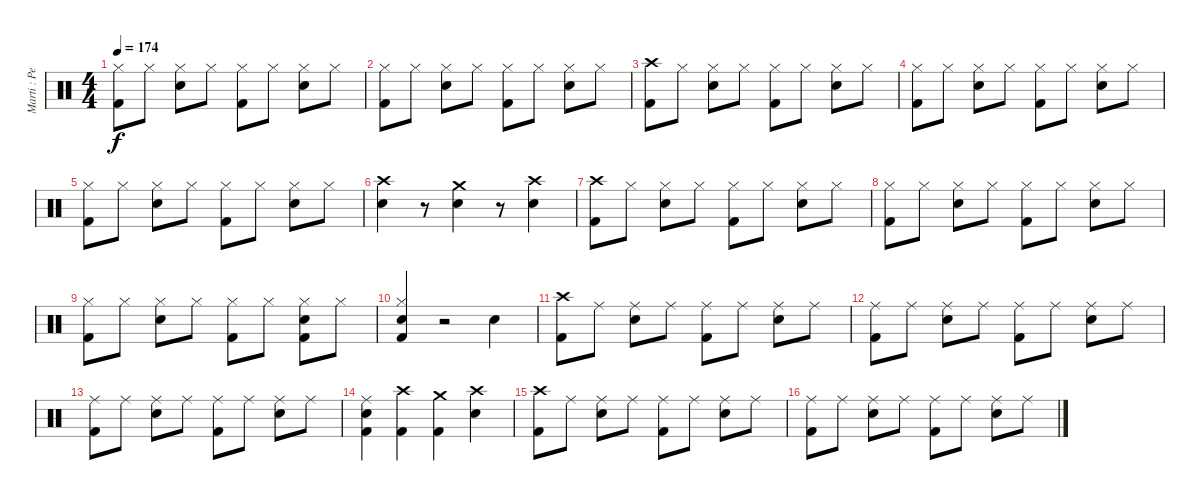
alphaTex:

\track ("Marti : Percussion" "Marti : Pe") {instrument percussion}
\staff {score}
\articulation defaults
\ts (4 4)
\tempo 174
\clef neutral
\ks c
("Kick (hit) 2" "Hi-Hat (closed)").8{dy f} "Hi-Hat (closed)".8 ("Electric Snare (hit)" "Hi-Hat (closed)").8 "Hi-Hat (closed)".8 ("Kick (hit) 2" "Hi-Hat (closed)").8 "Hi-Hat (closed)".8 ("Electric Snare (hit)" "Hi-Hat (closed)").8 "Hi-Hat (closed)".8 |
("Kick (hit) 2" "Hi-Hat (closed)").8 "Hi-Hat (closed)".8 ("Electric Snare (hit)" "Hi-Hat (closed)").8 "Hi-Hat (closed)".8 ("Kick (hit) 2" "Hi-Hat (closed)").8 "Hi-Hat (closed)".8 ("Electric Snare (hit)" "Hi-Hat (closed)").8 "Hi-Hat (closed)".8 |
("Kick (hit) 2" "Crash high (hit)").8 "Hi-Hat (closed)".8 ("Electric Snare (hit)" "Hi-Hat (closed)").8 "Hi-Hat (closed)".8 ("Kick (hit) 2" "Hi-Hat (closed)").8 "Hi-Hat (closed)".8 ("Electric Snare (hit)" "Hi-Hat (closed)").8 "Hi-Hat (closed)".8 |
("Kick (hit) 2" "Hi-Hat (closed)").8 "Hi-Hat (closed)".8 ("Electric Snare (hit)" "Hi-Hat (closed)").8 "Hi-Hat (closed)".8 ("Kick (hit) 2" "Hi-Hat (closed)").8 "Hi-Hat (closed)".8 ("Electric Snare (hit)" "Hi-Hat (closed)").8 "Hi-Hat (closed)".8 |
("Kick (hit) 2" "Hi-Hat (closed)").8 "Hi-Hat (closed)".8 ("Electric Snare (hit)" "Hi-Hat (closed)").8 "Hi-Hat (closed)".8 ("Kick (hit) 2" "Hi-Hat (closed)").8 "Hi-Hat (closed)".8 ("Electric Snare (hit)" "Hi-Hat (closed)").8 "Hi-Hat (closed)".8 |
("Electric Snare (hit)" "Crash high (hit)").4 r.8 ("Electric Snare (hit)" "Crash medium (hit)").4 r.8 ("Electric Snare (hit)" "Crash high (hit)").4 |
("Kick (hit) 2" "Crash high (hit)").8 "Hi-Hat (closed)".8 ("Electric Snare (hit)" "Hi-Hat (closed)").8 "Hi-Hat (closed)".8 ("Kick (hit) 2" "Hi-Hat (closed)").8 "Hi-Hat (closed)".8 ("Electric Snare (hit)" "Hi-Hat (closed)").8 "Hi-Hat (closed)".8 |
("Kick (hit) 2" "Hi-Hat (closed)").8 "Hi-Hat (closed)".8 ("Electric Snare (hit)" "Hi-Hat (closed)").8 "Hi-Hat (closed)".8 ("Kick (hit) 2" "Hi-Hat (closed)").8 "Hi-Hat (closed)".8 ("Electric Snare (hit)" "Hi-Hat (closed)").8 "Hi-Hat (closed)".8 |
("Kick (hit) 2" "Hi-Hat (closed)").8 "Hi-Hat (closed)".8 ("Electric Snare (hit)" "Hi-Hat (closed)").8 "Hi-Hat (closed)".8 ("Kick (hit) 2" "Hi-Hat (closed)").8 "Hi-Hat (closed)".8 ("Kick (hit) 2" "Electric Snare (hit)" "Hi-Hat (closed)").8 "Hi-Hat (closed)".8 |
("Kick (hit) 2" "Electric Snare (hit)" "Hi-Hat (closed)").4 r.2 "Electric Snare (hit)".4 |
("Kick (hit) 2" "Crash high (hit)").8 "Ride (middle)".8 ("Electric Snare (hit)" "Ride (middle)").8 "Ride (middle)".8 ("Kick (hit) 2" "Ride (middle)").8 "Ride (middle)".8 ("Electric Snare (hit)" "Ride (middle)").8 "Ride (middle)".8 |
("Kick (hit) 2" "Ride (middle)").8 "Ride (middle)".8 ("Electric Snare (hit)" "Ride (middle)").8 "Ride (middle)".8 ("Kick (hit) 2" "Ride (middle)").8 "Ride (middle)".8 ("Electric Snare (hit)" "Ride (middle)").8 "Ride (middle)".8 |
("Kick (hit) 2" "Ride (middle)").8 "Ride (middle)".8 ("Electric Snare (hit)" "Ride (middle)").8 "Ride (middle)".8 ("Kick (hit) 2" "Ride (middle)").8 "Ride (middle)".8 ("Electric Snare (hit)" "Ride (middle)").8 "Ride (middle)".8 |
("Kick (hit) 2" "Electric Snare (hit)" "Ride (middle)").4 ("Kick (hit) 2" "Crash high (hit)").4 ("Kick (hit) 2" "Crash medium (hit)").4 ("Electric Snare (hit)" "Crash high (hit)").4 |
("Kick (hit) 2" "Crash high (hit)").8 "Ride (middle)".8 ("Electric Snare (hit)" "Ride (middle)").8 "Ride (middle)".8 ("Kick (hit) 2" "Ride (middle)").8 "Ride (middle)".8 ("Electric Snare (hit)" "Ride (middle)").8 "Ride (middle)".8 |
("Kick (hit) 2" "Ride (middle)").8 "Ride (middle)".8 ("Electric Snare (hit)" "Ride (middle)").8 "Ride (middle)".8 ("Kick (hit) 2" "Ride (middle)").8 "Ride (middle)".8 ("Electric Snare (hit)" "Ride (middle)").8 "Ride (middle)".8
